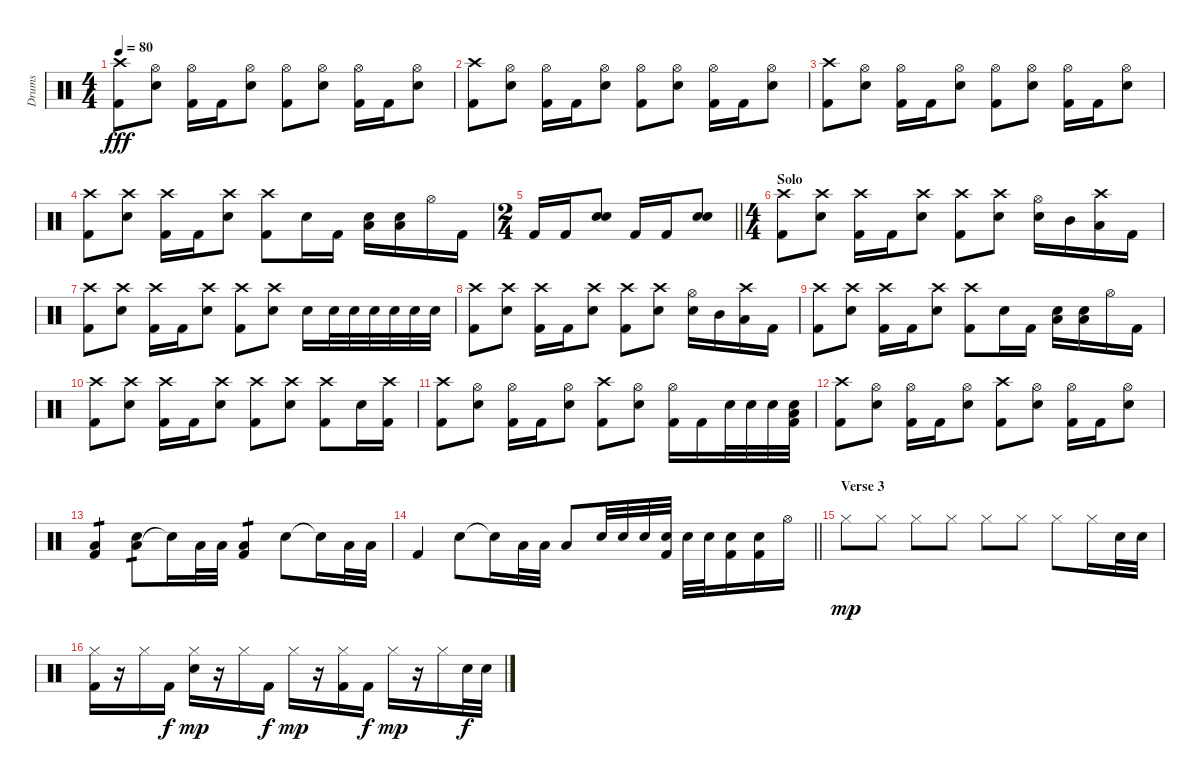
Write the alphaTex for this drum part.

\track ("Drums" "Drums") {instrument percussion}
\staff {score}
\articulation defaults
\ts (4 4)
\tempo 80
\clef neutral
\ks c
("Crash high (hit)" "Kick (hit) 2").8{dy fff} ("Hi-Hat (open)" "Snare (hit) 2").8 ("Hi-Hat (open)" "Kick (hit) 2").16 "Kick (hit) 2".16 ("Hi-Hat (open)" "Snare (hit) 2").8 ("Hi-Hat (open)" "Kick (hit) 2").8 ("Hi-Hat (open)" "Snare (hit) 2").8 ("Hi-Hat (open)" "Kick (hit) 2").16 "Kick (hit) 2".16 ("Hi-Hat (open)" "Snare (hit) 2").8 |
("Crash high (hit)" "Kick (hit) 2").8 ("Hi-Hat (open)" "Snare (hit) 2").8 ("Hi-Hat (open)" "Kick (hit) 2").16 "Kick (hit) 2".16 ("Hi-Hat (open)" "Snare (hit) 2").8 ("Hi-Hat (open)" "Kick (hit) 2").8 ("Hi-Hat (open)" "Snare (hit) 2").8 ("Hi-Hat (open)" "Kick (hit) 2").16 "Kick (hit) 2".16 ("Hi-Hat (open)" "Snare (hit) 2").8 |
("Crash high (hit)" "Kick (hit) 2").8 ("Hi-Hat (open)" "Snare (hit) 2").8 ("Hi-Hat (open)" "Kick (hit) 2").16 "Kick (hit) 2".16 ("Hi-Hat (open)" "Snare (hit) 2").8 ("Hi-Hat (open)" "Kick (hit) 2").8 ("Hi-Hat (open)" "Snare (hit) 2").8 ("Hi-Hat (open)" "Kick (hit) 2").16 "Kick (hit) 2".16 ("Hi-Hat (open)" "Snare (hit) 2").8 |
("Crash high (hit)" "Kick (hit) 2").8 ("Crash high (hit)" "Snare (hit) 2").8 ("Crash high (hit)" "Kick (hit) 2").16 "Kick (hit) 2".16 ("Crash high (hit)" "Snare (hit) 2").8 ("Crash high (hit)" "Kick (hit) 2").8 "Snare (hit) 2".16 "Kick (hit) 2".16 ("Snare (hit) 2" "Low Floor Tom (hit)").16 ("Snare (hit) 2" "Low Floor Tom (hit)").16 "Hi-Hat (open)".16 "Kick (hit) 2".16 |
\ts (2 4)
\barLineRight lightlight "Kick (hit) 2".16 "Kick (hit) 2".16
("Snare (hit) 2" "Snare (hit) 2").8 "Kick (hit) 2".16 "Kick (hit) 2".16 ("Snare (hit) 2" "Snare (hit) 2").8 |
\ts (4 4)
\section ("" "Solo")
("Crash high (hit)" "Kick (hit) 2").8 ("Crash high (hit)" "Snare (hit) 2").8 ("Crash high (hit)" "Kick (hit) 2").16 "Kick (hit) 2".16 ("Crash high (hit)" "Snare (hit) 2").8 ("Crash high (hit)" "Kick (hit) 2").8 ("Crash high (hit)" "Snare (hit) 2").8 ("Hi-Hat (open)" "Snare (hit) 2").16 "Mid Tom (hit)".16 ("Crash high (hit)" "Low Tom (hit)").16 "Kick (hit) 2".16 |
("Crash high (hit)" "Kick (hit) 2").8 ("Crash high (hit)" "Snare (hit) 2").8 ("Crash high (hit)" "Kick (hit) 2").16 "Kick (hit) 2".16 ("Crash high (hit)" "Snare (hit) 2").8 ("Crash high (hit)" "Kick (hit) 2").8 ("Crash high (hit)" "Snare (hit) 2").8 "Snare (hit) 2".16 "Snare (hit) 2".32 "Snare (hit) 2".32 "Snare (hit) 2".32 "Snare (hit) 2".32 "Snare (hit) 2".32 "Snare (hit) 2".32 |
("Crash high (hit)" "Kick (hit) 2").8 ("Crash high (hit)" "Snare (hit) 2").8 ("Crash high (hit)" "Kick (hit) 2").16 "Kick (hit) 2".16 ("Crash high (hit)" "Snare (hit) 2").8 ("Crash high (hit)" "Kick (hit) 2").8 ("Crash high (hit)" "Snare (hit) 2").8 ("Hi-Hat (open)" "Snare (hit) 2").16 "Mid Tom (hit)".16 ("Crash high (hit)" "Low Tom (hit)").16 "Kick (hit) 2".16 |
("Crash high (hit)" "Kick (hit) 2").8 ("Crash high (hit)" "Snare (hit) 2").8 ("Crash high (hit)" "Kick (hit) 2").16 "Kick (hit) 2".16 ("Crash high (hit)" "Snare (hit) 2").8 ("Crash high (hit)" "Kick (hit) 2").8 "Snare (hit) 2".16 "Kick (hit) 2".16 ("Snare (hit) 2" "Low Floor Tom (hit)").16 ("Snare (hit) 2" "Low Floor Tom (hit)").16 "Hi-Hat (open)".16 "Kick (hit) 2".16 |
("Crash high (hit)" "Kick (hit) 2").8 ("Crash high (hit)" "Snare (hit) 2").8 ("Crash high (hit)" "Kick (hit) 2").16 "Kick (hit) 2".16 ("Crash high (hit)" "Snare (hit) 2").8 ("Crash high (hit)" "Kick (hit) 2").8 ("Crash high (hit)" "Snare (hit) 2").8 ("Crash high (hit)" "Kick (hit) 2").8 "Snare (hit) 2".16 ("Crash high (hit)" "Kick (hit) 2").16 |
("Crash high (hit)" "Kick (hit) 2").8 ("Hi-Hat (open)" "Snare (hit) 2").8 ("Hi-Hat (open)" "Kick (hit) 2").16 "Kick (hit) 2".16 ("Hi-Hat (open)" "Snare (hit) 2").8 ("Crash high (hit)" "Kick (hit) 2").8 ("Hi-Hat (open)" "Snare (hit) 2").8 ("Hi-Hat (open)" "Kick (hit) 2").16 "Kick (hit) 2".16 "Snare (hit) 2".32 "Snare (hit) 2".32 "Snare (hit) 2".32 ("Low Tom (hit)" "Snare (hit) 2" "Kick (hit) 2").32 |
("Crash high (hit)" "Kick (hit) 2").8 ("Hi-Hat (open)" "Snare (hit) 2").8 ("Hi-Hat (open)" "Kick (hit) 2").16 "Kick (hit) 2".16 ("Hi-Hat (open)" "Snare (hit) 2").8 ("Crash high (hit)" "Kick (hit) 2").8 ("Hi-Hat (open)" "Snare (hit) 2").8 ("Hi-Hat (open)" "Kick (hit) 2").16 "Kick (hit) 2".16 ("Hi-Hat (open)" "Snare (hit) 2").8 |
("Low Floor Tom (hit)" "Kick (hit) 2").4{tp 1} ("Low Floor Tom (hit)" "Snare (hit) 2").8{tp 1} "Snare (hit) 2"{t}.16 "Low Floor Tom (hit)".32 "Low Floor Tom (hit)".32 ("Low Floor Tom (hit)" "Kick (hit) 2").4{tp 1} "Snare (hit) 2".8 "Snare (hit) 2"{t}.16 "Low Floor Tom (hit)".32 "Low Floor Tom (hit)".32 |
\barLineRight lightlight "Kick (hit) 2".4 "Snare (hit) 2".8 "Snare (hit) 2"{t}.16 "Low Floor Tom (hit)".32 "Low Floor Tom (hit)".32 "Low Floor Tom (hit)".8 "Snare (hit) 2".32 "Snare (hit) 2".32 "Snare (hit) 2".32
("Snare (hit) 2" "Kick (hit) 2").32 "Snare (hit) 2".32 "Snare (hit) 2".32 ("Snare (hit) 2" "Kick (hit) 2").16 ("Snare (hit) 2" "Kick (hit) 2").16 "Hi-Hat (open)".16 |
\section ("" "Verse 3")
"Hi-Hat (closed)".8{dy mp} "Hi-Hat (closed)".8 "Hi-Hat (closed)".8 "Hi-Hat (closed)".8 "Hi-Hat (closed)".8 "Hi-Hat (closed)".8 "Hi-Hat (closed)".8 "Hi-Hat (closed)".16 "Snare (hit) 2".32 "Snare (hit) 2".32 |
("Hi-Hat (closed)" "Kick (hit) 2").16 r.16 "Hi-Hat (closed)".16 "Kick (hit) 2".16{dy f} ("Hi-Hat (closed)" "Snare (hit) 2").16{dy mp} r.16 "Hi-Hat (closed)".16 "Kick (hit) 2".16{dy f} "Hi-Hat (closed)".16{dy mp} r.16 ("Hi-Hat (closed)" "Kick (hit) 2").16 "Kick (hit) 2".16{dy f} "Hi-Hat (closed)".16{dy mp} r.16 "Hi-Hat (closed)".16 "Snare (hit) 2".32{dy f} "Snare (hit) 2".32
